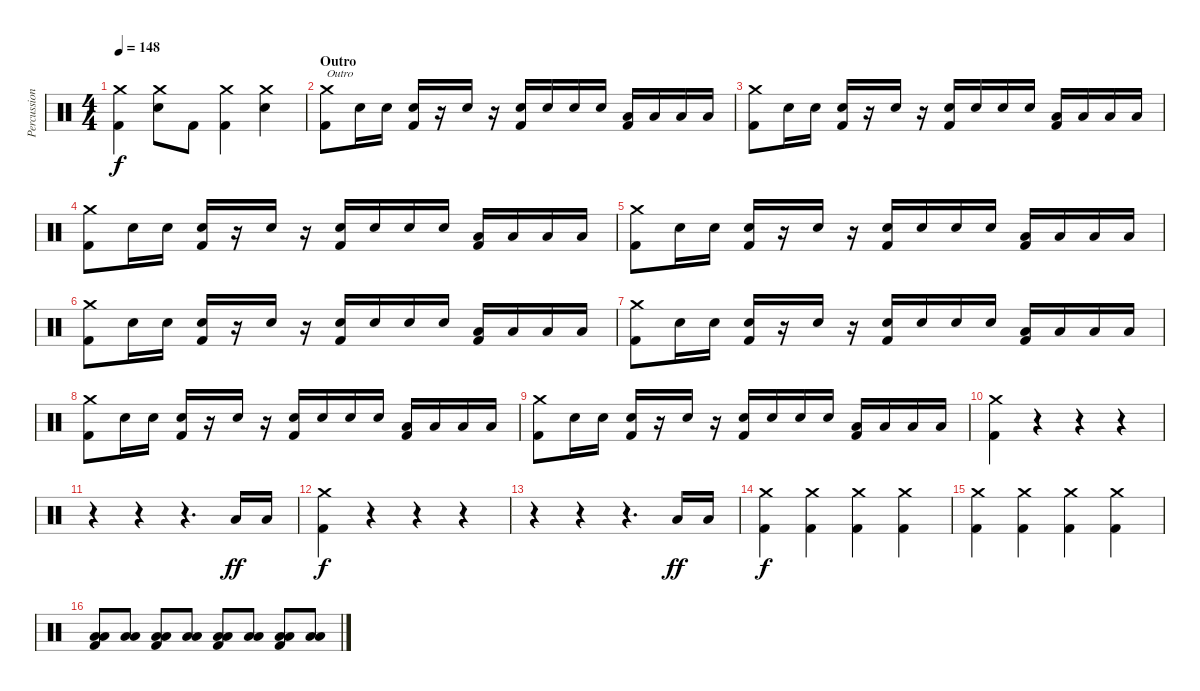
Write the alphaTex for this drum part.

\track ("Percussion" "Percussion") {instrument percussion}
\staff {score}
\articulation defaults
\ts (4 4)
\tempo 148
\clef neutral
\ks c
("Crash medium (hit)" "Kick (hit) 2").4{dy f} ("Crash medium (hit)" "Electric Snare (hit)").8 "Kick (hit) 2".8 ("Crash medium (hit)" "Kick (hit) 2").4 ("Crash medium (hit)" "Electric Snare (hit)").4 |
\section ("" "Outro")
("Crash medium (hit)" "Kick (hit) 2").8{txt "Outro"} "Electric Snare (hit)".16 "Electric Snare (hit)".16 ("Electric Snare (hit)" "Kick (hit) 2").16 r.16 "Electric Snare (hit)".16 r.16 ("Electric Snare (hit)" "Kick (hit) 2").16 "Electric Snare (hit)".16 "Electric Snare (hit)".16 "Electric Snare (hit)".16 ("Low Tom (hit)" "Kick (hit) 2").16 "Low Tom (hit)".16 "Low Floor Tom (hit)".16 "Low Floor Tom (hit)".16 |
("Crash medium (hit)" "Kick (hit) 2").8 "Electric Snare (hit)".16 "Electric Snare (hit)".16 ("Electric Snare (hit)" "Kick (hit) 2").16 r.16 "Electric Snare (hit)".16 r.16 ("Electric Snare (hit)" "Kick (hit) 2").16 "Electric Snare (hit)".16 "Electric Snare (hit)".16 "Electric Snare (hit)".16 ("Low Tom (hit)" "Kick (hit) 2").16 "Low Tom (hit)".16 "Low Floor Tom (hit)".16 "Low Floor Tom (hit)".16 |
("Crash medium (hit)" "Kick (hit) 2").8 "Electric Snare (hit)".16 "Electric Snare (hit)".16 ("Electric Snare (hit)" "Kick (hit) 2").16 r.16 "Electric Snare (hit)".16 r.16 ("Electric Snare (hit)" "Kick (hit) 2").16 "Electric Snare (hit)".16 "Electric Snare (hit)".16 "Electric Snare (hit)".16 ("Low Tom (hit)" "Kick (hit) 2").16 "Low Tom (hit)".16 "Low Floor Tom (hit)".16 "Low Floor Tom (hit)".16 |
("Crash medium (hit)" "Kick (hit) 2").8 "Electric Snare (hit)".16 "Electric Snare (hit)".16 ("Electric Snare (hit)" "Kick (hit) 2").16 r.16 "Electric Snare (hit)".16 r.16 ("Electric Snare (hit)" "Kick (hit) 2").16 "Electric Snare (hit)".16 "Electric Snare (hit)".16 "Electric Snare (hit)".16 ("Low Tom (hit)" "Kick (hit) 2").16 "Low Tom (hit)".16 "Low Floor Tom (hit)".16 "Low Floor Tom (hit)".16 |
("Crash medium (hit)" "Kick (hit) 2").8 "Electric Snare (hit)".16 "Electric Snare (hit)".16 ("Electric Snare (hit)" "Kick (hit) 2").16 r.16 "Electric Snare (hit)".16 r.16 ("Electric Snare (hit)" "Kick (hit) 2").16 "Electric Snare (hit)".16 "Electric Snare (hit)".16 "Electric Snare (hit)".16 ("Low Tom (hit)" "Kick (hit) 2").16 "Low Tom (hit)".16 "Low Floor Tom (hit)".16 "Low Floor Tom (hit)".16 |
("Crash medium (hit)" "Kick (hit) 2").8 "Electric Snare (hit)".16 "Electric Snare (hit)".16 ("Electric Snare (hit)" "Kick (hit) 2").16 r.16 "Electric Snare (hit)".16 r.16 ("Electric Snare (hit)" "Kick (hit) 2").16 "Electric Snare (hit)".16 "Electric Snare (hit)".16 "Electric Snare (hit)".16 ("Low Tom (hit)" "Kick (hit) 2").16 "Low Tom (hit)".16 "Low Floor Tom (hit)".16 "Low Floor Tom (hit)".16 |
("Crash medium (hit)" "Kick (hit) 2").8 "Electric Snare (hit)".16 "Electric Snare (hit)".16 ("Electric Snare (hit)" "Kick (hit) 2").16 r.16 "Electric Snare (hit)".16 r.16 ("Electric Snare (hit)" "Kick (hit) 2").16 "Electric Snare (hit)".16 "Electric Snare (hit)".16 "Electric Snare (hit)".16 ("Low Tom (hit)" "Kick (hit) 2").16 "Low Tom (hit)".16 "Low Floor Tom (hit)".16 "Low Floor Tom (hit)".16 |
("Crash medium (hit)" "Kick (hit) 2").8 "Electric Snare (hit)".16 "Electric Snare (hit)".16 ("Electric Snare (hit)" "Kick (hit) 2").16 r.16 "Electric Snare (hit)".16 r.16 ("Electric Snare (hit)" "Kick (hit) 2").16 "Electric Snare (hit)".16 "Electric Snare (hit)".16 "Electric Snare (hit)".16 ("Low Tom (hit)" "Kick (hit) 2").16 "Low Tom (hit)".16 "Low Floor Tom (hit)".16 "Low Floor Tom (hit)".16 |
("Crash medium (hit)" "Kick (hit) 2").4 r.4 r.4 r.4 |
r.4 r.4 r.4{d} "Low Floor Tom (hit)".16{dy ff} "Low Floor Tom (hit)".16 |
("Crash medium (hit)" "Kick (hit) 2").4{dy f} r.4 r.4 r.4 |
r.4 r.4 r.4{d} "Low Floor Tom (hit)".16{dy ff} "Low Floor Tom (hit)".16 |
("Crash medium (hit)" "Kick (hit) 2").4{dy f} ("Crash medium (hit)" "Kick (hit) 2").4 ("Crash medium (hit)" "Kick (hit) 2").4 ("Crash medium (hit)" "Kick (hit) 2").4 |
("Crash medium (hit)" "Kick (hit) 2").4 ("Crash medium (hit)" "Kick (hit) 2").4 ("Crash medium (hit)" "Kick (hit) 2").4 ("Crash medium (hit)" "Kick (hit) 2").4 |
("Low Tom (hit)" "Low Floor Tom (hit)" "Kick (hit) 2").8 ("Low Tom (hit)" "Low Floor Tom (hit)").8 ("Low Tom (hit)" "Low Floor Tom (hit)" "Kick (hit) 2").8 ("Low Tom (hit)" "Low Floor Tom (hit)").8 ("Low Tom (hit)" "Low Floor Tom (hit)" "Kick (hit) 2").8 ("Low Tom (hit)" "Low Floor Tom (hit)").8 ("Low Tom (hit)" "Low Floor Tom (hit)" "Kick (hit) 2").8 ("Low Tom (hit)" "Low Floor Tom (hit)").8
